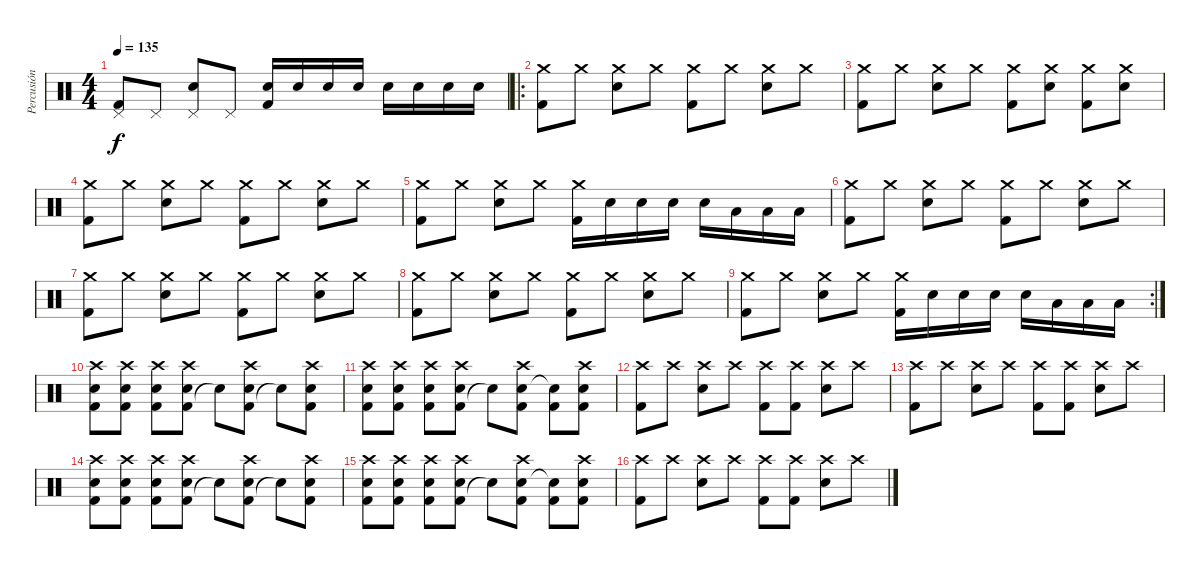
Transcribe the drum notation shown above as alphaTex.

\track ("Percusión" "Percusión") {instrument percussion}
\staff {score}
\articulation defaults
\ts (4 4)
\tempo 135
\clef neutral
\ks c
("Kick (hit) 2" "Pedal Hi-Hat (hit)").8{dy f} "Pedal Hi-Hat (hit)".8 ("Snare (hit) 2" "Pedal Hi-Hat (hit)").8 "Pedal Hi-Hat (hit)".8 ("Kick (hit) 2" "Snare (hit) 2").16 "Snare (hit) 2".16 "Snare (hit) 2".16 "Snare (hit) 2".16 "Snare (hit) 2".16 "Snare (hit) 2".16 "Snare (hit) 2".16 "Snare (hit) 2".16 |
\ro
("Kick (hit) 2" "Crash medium (hit)").8 "Crash medium (hit)".8 ("Snare (hit) 2" "Crash medium (hit)").8 "Crash medium (hit)".8 ("Kick (hit) 2" "Crash medium (hit)").8 "Crash medium (hit)".8 ("Snare (hit) 2" "Crash medium (hit)").8 "Crash medium (hit)".8 |
("Kick (hit) 2" "Crash medium (hit)").8 "Crash medium (hit)".8 ("Snare (hit) 2" "Crash medium (hit)").8 "Crash medium (hit)".8 ("Kick (hit) 2" "Crash medium (hit)").8 ("Snare (hit) 2" "Crash medium (hit)").8 ("Kick (hit) 2" "Crash medium (hit)").8 ("Snare (hit) 2" "Crash medium (hit)").8 |
("Kick (hit) 2" "Crash medium (hit)").8 "Crash medium (hit)".8 ("Snare (hit) 2" "Crash medium (hit)").8 "Crash medium (hit)".8 ("Kick (hit) 2" "Crash medium (hit)").8 "Crash medium (hit)".8 ("Snare (hit) 2" "Crash medium (hit)").8 "Crash medium (hit)".8 |
("Kick (hit) 2" "Crash medium (hit)").8 "Crash medium (hit)".8 ("Snare (hit) 2" "Crash medium (hit)").8 "Crash medium (hit)".8 ("Kick (hit) 2" "Crash medium (hit)").16 "Snare (hit) 2".16 "Snare (hit) 2".16 "Snare (hit) 2".16 "Snare (hit) 2".16 "Low Tom (hit)".16 "Low Tom (hit)".16 "Low Tom (hit)".16 |
("Kick (hit) 2" "Crash medium (hit)").8 "Crash medium (hit)".8 ("Snare (hit) 2" "Crash medium (hit)").8 "Crash medium (hit)".8 ("Kick (hit) 2" "Crash medium (hit)").8 "Crash medium (hit)".8 ("Snare (hit) 2" "Crash medium (hit)").8 "Crash medium (hit)".8 |
("Kick (hit) 2" "Crash medium (hit)").8 "Crash medium (hit)".8 ("Snare (hit) 2" "Crash medium (hit)").8 "Crash medium (hit)".8 ("Kick (hit) 2" "Crash medium (hit)").8 "Crash medium (hit)".8 ("Snare (hit) 2" "Crash medium (hit)").8 "Crash medium (hit)".8 |
("Kick (hit) 2" "Crash medium (hit)").8 "Crash medium (hit)".8 ("Snare (hit) 2" "Crash medium (hit)").8 "Crash medium (hit)".8 ("Kick (hit) 2" "Crash medium (hit)").8 "Crash medium (hit)".8 ("Snare (hit) 2" "Crash medium (hit)").8 "Crash medium (hit)".8 |
\rc 2
("Kick (hit) 2" "Crash medium (hit)").8 "Crash medium (hit)".8 ("Snare (hit) 2" "Crash medium (hit)").8 "Crash medium (hit)".8 ("Kick (hit) 2" "Crash medium (hit)").16 "Snare (hit) 2".16 "Snare (hit) 2".16 "Snare (hit) 2".16 "Snare (hit) 2".16 "Low Tom (hit)".16 "Low Tom (hit)".16 "Low Tom (hit)".16 |
("Kick (hit) 2" "Snare (hit) 2" "Crash high (hit)").8 ("Kick (hit) 2" "Snare (hit) 2" "Crash high (hit)").8 ("Kick (hit) 2" "Snare (hit) 2" "Crash high (hit)").8 ("Kick (hit) 2" "Snare (hit) 2" "Crash high (hit)").8 "Snare (hit)"{t}.8 ("Kick (hit) 2" "Snare (hit) 2" "Crash high (hit)").8 "Snare (hit)"{t}.8 ("Kick (hit) 2" "Snare (hit) 2" "Crash high (hit)").8 |
("Kick (hit) 2" "Snare (hit) 2" "Crash high (hit)").8 ("Kick (hit) 2" "Snare (hit) 2" "Crash high (hit)").8 ("Kick (hit) 2" "Snare (hit) 2" "Crash high (hit)").8 ("Kick (hit) 2" "Snare (hit) 2" "Crash high (hit)").8 "Snare (hit)"{t}.8 ("Kick (hit) 2" "Snare (hit) 2" "Crash high (hit)").8 ("Kick (hit) 2" "Snare (hit)"{t}).8 ("Kick (hit) 2" "Snare (hit) 2" "Crash high (hit)").8 |
("Kick (hit) 2" "Crash high (hit)").8 "Crash high (hit)".8 ("Snare (hit) 2" "Crash high (hit)").8 "Crash high (hit)".8 ("Kick (hit) 2" "Crash high (hit)").8 ("Kick (hit) 2" "Crash high (hit)").8 ("Snare (hit) 2" "Crash high (hit)").8 "Crash high (hit)".8 |
("Kick (hit) 2" "Crash high (hit)").8 "Crash high (hit)".8 ("Snare (hit) 2" "Crash high (hit)").8 "Crash high (hit)".8 ("Kick (hit) 2" "Crash high (hit)").8 ("Kick (hit) 2" "Crash high (hit)").8 ("Snare (hit) 2" "Crash high (hit)").8 "Crash high (hit)".8 |
("Kick (hit) 2" "Snare (hit) 2" "Crash high (hit)").8 ("Kick (hit) 2" "Snare (hit) 2" "Crash high (hit)").8 ("Kick (hit) 2" "Snare (hit) 2" "Crash high (hit)").8 ("Kick (hit) 2" "Snare (hit) 2" "Crash high (hit)").8 "Snare (hit)"{t}.8 ("Kick (hit) 2" "Snare (hit) 2" "Crash high (hit)").8 "Snare (hit)"{t}.8 ("Kick (hit) 2" "Snare (hit) 2" "Crash high (hit)").8 |
("Kick (hit) 2" "Snare (hit) 2" "Crash high (hit)").8 ("Kick (hit) 2" "Snare (hit) 2" "Crash high (hit)").8 ("Kick (hit) 2" "Snare (hit) 2" "Crash high (hit)").8 ("Kick (hit) 2" "Snare (hit) 2" "Crash high (hit)").8 "Snare (hit)"{t}.8 ("Kick (hit) 2" "Snare (hit) 2" "Crash high (hit)").8 ("Kick (hit) 2" "Snare (hit)"{t}).8 ("Kick (hit) 2" "Snare (hit) 2" "Crash high (hit)").8 |
("Kick (hit) 2" "Crash high (hit)").8 "Crash high (hit)".8 ("Snare (hit) 2" "Crash high (hit)").8 "Crash high (hit)".8 ("Kick (hit) 2" "Crash high (hit)").8 ("Kick (hit) 2" "Crash high (hit)").8 ("Snare (hit) 2" "Crash high (hit)").8 "Crash high (hit)".8
